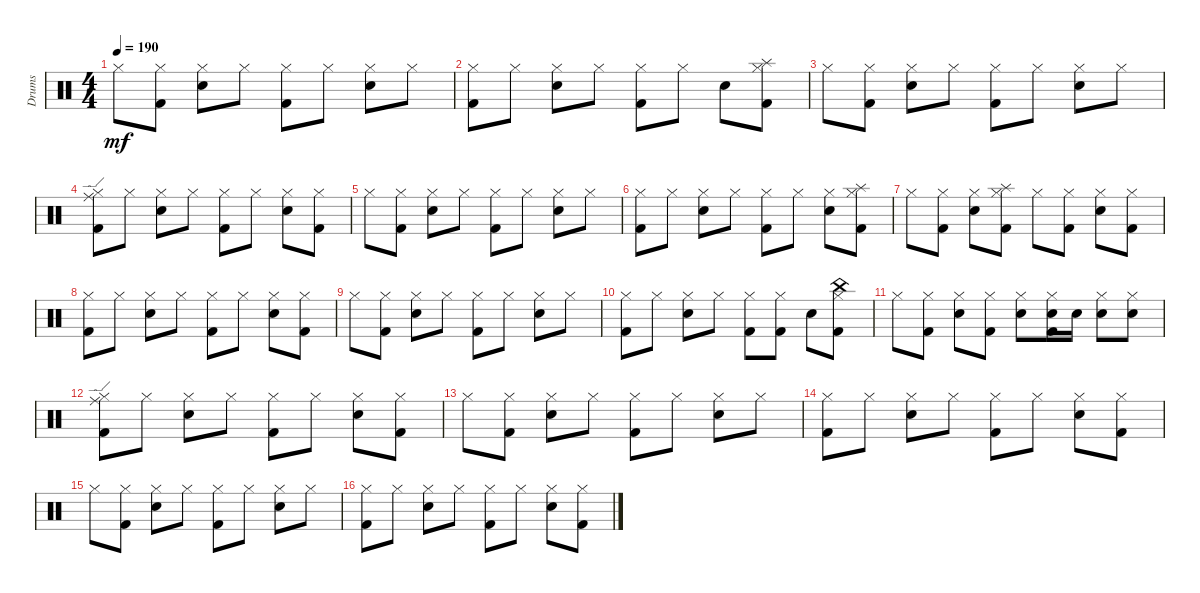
\defaultSystemsLayout 4
\bracketExtendMode groupsimilarinstruments
\otherSystemsTrackNameOrientation horizontal
\track ("Prakarsh" "Drums") {instrument percussion}
\staff {score}
\articulation defaults
\ts (4 4)
\tempo 190
\clef neutral
\ks c "Hi-Hat (closed)".8{dy mf beam Down}
("Hi-Hat (closed)" "Kick (hit) 2").8{beam Down} ("Hi-Hat (closed)" "Snare (hit) 2").8{beam Down} "Hi-Hat (closed)".8{beam Down} ("Hi-Hat (closed)" "Kick (hit) 2").8{beam Down} "Hi-Hat (closed)".8{beam Down} ("Hi-Hat (closed)" "Snare (hit) 2").8{beam Down} "Hi-Hat (closed)".8{beam Down} |
("Kick (hit) 2" "Hi-Hat (closed)").8{beam Down} "Hi-Hat (closed)".8{beam Down} ("Hi-Hat (closed)" "Snare (hit) 2").8{beam Down} "Hi-Hat (closed)".8{beam Down} ("Hi-Hat (closed)" "Kick (hit) 2").8{beam Down} "Hi-Hat (closed)".8{beam Down} "Snare (hit) 2".8{beam Down} ("Hi-Hat (closed)" "Kick (hit) 2" "Splash (hit)").8{beam Down} |
"Hi-Hat (closed)".8{beam Down} ("Hi-Hat (closed)" "Kick (hit) 2").8{beam Down} ("Hi-Hat (closed)" "Snare (hit) 2").8{beam Down} "Hi-Hat (closed)".8{beam Down} ("Hi-Hat (closed)" "Kick (hit) 2").8{beam Down} "Hi-Hat (closed)".8{beam Down} ("Hi-Hat (closed)" "Snare (hit) 2").8{beam Down} "Hi-Hat (closed)".8{beam Down} |
("Kick (hit) 2" "Hi-Hat (closed)" "Ride (edge)").8{beam Down} "Hi-Hat (closed)".8{beam Down} ("Hi-Hat (closed)" "Snare (hit) 2").8{beam Down} "Hi-Hat (closed)".8{beam Down} ("Hi-Hat (closed)" "Kick (hit) 2").8{beam Down} "Hi-Hat (closed)".8{beam Down} ("Hi-Hat (closed)" "Snare (hit) 2").8{beam Down} ("Hi-Hat (closed)" "Kick (hit) 2").8{beam Down} |
"Hi-Hat (closed)".8{beam Down} ("Hi-Hat (closed)" "Kick (hit) 2").8{beam Down} ("Hi-Hat (closed)" "Snare (hit) 2").8{beam Down} "Hi-Hat (closed)".8{beam Down} ("Hi-Hat (closed)" "Kick (hit) 2").8{beam Down} "Hi-Hat (closed)".8{beam Down} ("Hi-Hat (closed)" "Snare (hit) 2").8{beam Down} "Hi-Hat (closed)".8{beam Down} |
("Kick (hit) 2" "Hi-Hat (closed)").8{beam Down} "Hi-Hat (closed)".8{beam Down} ("Hi-Hat (closed)" "Snare (hit) 2").8{beam Down} "Hi-Hat (closed)".8{beam Down} ("Hi-Hat (closed)" "Kick (hit) 2").8{beam Down} "Hi-Hat (closed)".8{beam Down} ("Hi-Hat (closed)" "Snare (hit) 2").8{beam Down} ("Hi-Hat (closed)" "Kick (hit) 2" "Splash (hit)").8{beam Down} |
"Hi-Hat (closed)".8{beam Down} ("Hi-Hat (closed)" "Kick (hit) 2").8{beam Down} ("Snare (hit) 2" "Hi-Hat (closed)").8{beam Down} ("Hi-Hat (closed)" "Kick (hit) 2" "Splash (hit)").8{beam Down} "Hi-Hat (closed)".8{beam Down} ("Hi-Hat (closed)" "Kick (hit) 2").8{beam Down} ("Snare (hit) 2" "Hi-Hat (closed)").8{beam Down} ("Hi-Hat (closed)" "Kick (hit) 2").8{beam Down} |
("Kick (hit) 2" "Hi-Hat (closed)").8{beam Down} "Hi-Hat (closed)".8{beam Down} ("Hi-Hat (closed)" "Snare (hit) 2").8{beam Down} "Hi-Hat (closed)".8{beam Down} ("Hi-Hat (closed)" "Kick (hit) 2").8{beam Down} "Hi-Hat (closed)".8{beam Down} ("Hi-Hat (closed)" "Snare (hit) 2").8{beam Down} ("Hi-Hat (closed)" "Kick (hit) 2").8{beam Down} |
"Hi-Hat (closed)".8{beam Down} ("Hi-Hat (closed)" "Kick (hit) 2").8{beam Down} ("Hi-Hat (closed)" "Snare (hit) 2").8{beam Down} "Hi-Hat (closed)".8{beam Down} ("Hi-Hat (closed)" "Kick (hit) 2").8{beam Down} "Hi-Hat (closed)".8{beam Down} ("Hi-Hat (closed)" "Snare (hit) 2").8{beam Down} "Hi-Hat (closed)".8{beam Down} |
("Kick (hit) 2" "Hi-Hat (closed)").8{beam Down} "Hi-Hat (closed)".8{beam Down} ("Hi-Hat (closed)" "Snare (hit) 2").8{beam Down} "Hi-Hat (closed)".8{beam Down} ("Hi-Hat (closed)" "Kick (hit) 2").8{beam Down} ("Hi-Hat (closed)" "Kick (hit) 2").8{beam Down} "Snare (hit) 2".8{beam Down} ("Hi-Hat (closed)" "Kick (hit) 2" "China (hit)").8{beam Down} |
"Hi-Hat (closed)".8{beam Down} ("Hi-Hat (closed)" "Kick (hit) 2").8{beam Down} ("Hi-Hat (closed)" "Snare (hit) 2").8{beam Down} ("Hi-Hat (closed)" "Kick (hit) 2").8{beam Down} ("Hi-Hat (closed)" "Snare (hit) 2").8{beam Down} ("Hi-Hat (closed)" "Kick (hit) 2" "Snare (hit) 2").16{beam Down} "Snare (hit) 2".16{beam Down} ("Hi-Hat (closed)" "Snare (hit) 2").8{beam Down} ("Hi-Hat (closed)" "Snare (hit) 2").8{beam Down} |
("Kick (hit) 2" "Hi-Hat (closed)" "Ride (edge)").8{beam Down} "Hi-Hat (closed)".8{beam Down} ("Hi-Hat (closed)" "Snare (hit) 2").8{beam Down} "Hi-Hat (closed)".8{beam Down} ("Hi-Hat (closed)" "Kick (hit) 2").8{beam Down} "Hi-Hat (closed)".8{beam Down} ("Hi-Hat (closed)" "Snare (hit) 2").8{beam Down} ("Hi-Hat (closed)" "Kick (hit) 2").8{beam Down} |
"Hi-Hat (closed)".8{beam Down} ("Hi-Hat (closed)" "Kick (hit) 2").8{beam Down} ("Hi-Hat (closed)" "Snare (hit) 2").8{beam Down} "Hi-Hat (closed)".8{beam Down} ("Hi-Hat (closed)" "Kick (hit) 2").8{beam Down} "Hi-Hat (closed)".8{beam Down} ("Hi-Hat (closed)" "Snare (hit) 2").8{beam Down} "Hi-Hat (closed)".8{beam Down} |
("Kick (hit) 2" "Hi-Hat (closed)").8{beam Down} "Hi-Hat (closed)".8{beam Down} ("Hi-Hat (closed)" "Snare (hit) 2").8{beam Down} "Hi-Hat (closed)".8{beam Down} ("Hi-Hat (closed)" "Kick (hit) 2").8{beam Down} "Hi-Hat (closed)".8{beam Down} ("Hi-Hat (closed)" "Snare (hit) 2").8{beam Down} ("Hi-Hat (closed)" "Kick (hit) 2").8{beam Down} |
"Hi-Hat (closed)".8{beam Down} ("Hi-Hat (closed)" "Kick (hit) 2").8{beam Down} ("Hi-Hat (closed)" "Snare (hit) 2").8{beam Down} "Hi-Hat (closed)".8{beam Down} ("Hi-Hat (closed)" "Kick (hit) 2").8{beam Down} "Hi-Hat (closed)".8{beam Down} ("Hi-Hat (closed)" "Snare (hit) 2").8{beam Down} "Hi-Hat (closed)".8{beam Down} |
("Kick (hit) 2" "Hi-Hat (closed)").8{beam Down} "Hi-Hat (closed)".8{beam Down} ("Hi-Hat (closed)" "Snare (hit) 2").8{beam Down} "Hi-Hat (closed)".8{beam Down} ("Hi-Hat (closed)" "Kick (hit) 2").8{beam Down} "Hi-Hat (closed)".8{beam Down} ("Hi-Hat (closed)" "Snare (hit) 2").8{beam Down} ("Hi-Hat (closed)" "Kick (hit) 2").8{beam Down}
